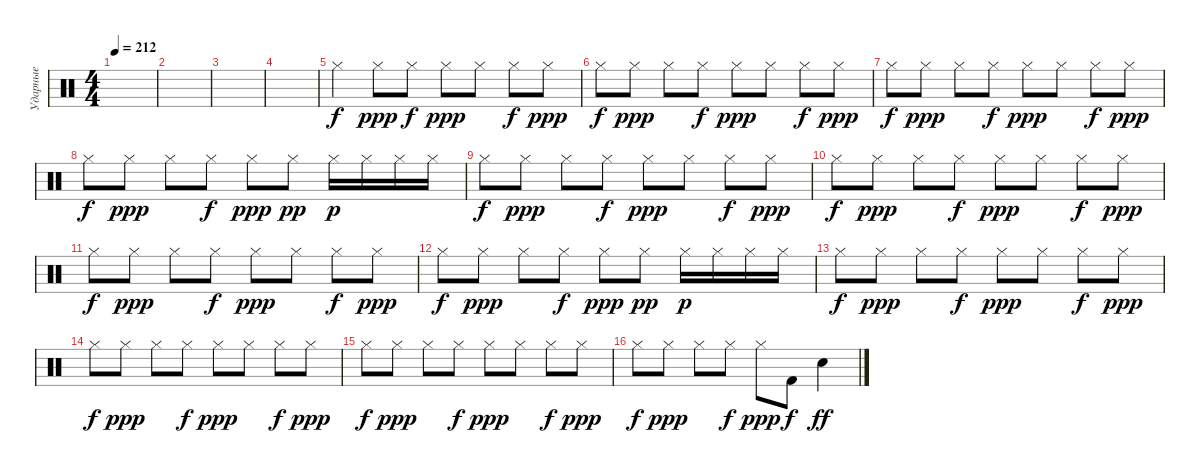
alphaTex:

\track ("Ударные" "Ударные") {instrument percussion}
\staff {score}
\articulation defaults
\ts (4 4)
\tempo 212
\clef neutral
\ks c
|
|
|
|
"Hi-Hat (closed)".4 "Hi-Hat (closed)".8{dy ppp} "Hi-Hat (closed)".8{dy f} "Hi-Hat (closed)".8{dy ppp} "Hi-Hat (closed)".8 "Hi-Hat (closed)".8{dy f} "Hi-Hat (closed)".8{dy ppp} |
"Hi-Hat (closed)".8{dy f} "Hi-Hat (closed)".8{dy ppp} "Hi-Hat (closed)".8 "Hi-Hat (closed)".8{dy f} "Hi-Hat (closed)".8{dy ppp} "Hi-Hat (closed)".8 "Hi-Hat (closed)".8{dy f} "Hi-Hat (closed)".8{dy ppp} |
"Hi-Hat (closed)".8{dy f} "Hi-Hat (closed)".8{dy ppp} "Hi-Hat (closed)".8 "Hi-Hat (closed)".8{dy f} "Hi-Hat (closed)".8{dy ppp} "Hi-Hat (closed)".8 "Hi-Hat (closed)".8{dy f} "Hi-Hat (closed)".8{dy ppp} |
"Hi-Hat (closed)".8{dy f} "Hi-Hat (closed)".8{dy ppp} "Hi-Hat (closed)".8 "Hi-Hat (closed)".8{dy f} "Hi-Hat (closed)".8{dy ppp} "Hi-Hat (closed)".8{dy pp} "Hi-Hat (closed)".16{dy p} "Hi-Hat (closed)".16 "Hi-Hat (closed)".16 "Hi-Hat (closed)".16 |
"Hi-Hat (closed)".8{dy f} "Hi-Hat (closed)".8{dy ppp} "Hi-Hat (closed)".8 "Hi-Hat (closed)".8{dy f} "Hi-Hat (closed)".8{dy ppp} "Hi-Hat (closed)".8 "Hi-Hat (closed)".8{dy f} "Hi-Hat (closed)".8{dy ppp} |
"Hi-Hat (closed)".8{dy f} "Hi-Hat (closed)".8{dy ppp} "Hi-Hat (closed)".8 "Hi-Hat (closed)".8{dy f} "Hi-Hat (closed)".8{dy ppp} "Hi-Hat (closed)".8 "Hi-Hat (closed)".8{dy f} "Hi-Hat (closed)".8{dy ppp} |
"Hi-Hat (closed)".8{dy f} "Hi-Hat (closed)".8{dy ppp} "Hi-Hat (closed)".8 "Hi-Hat (closed)".8{dy f} "Hi-Hat (closed)".8{dy ppp} "Hi-Hat (closed)".8 "Hi-Hat (closed)".8{dy f} "Hi-Hat (closed)".8{dy ppp} |
"Hi-Hat (closed)".8{dy f} "Hi-Hat (closed)".8{dy ppp} "Hi-Hat (closed)".8 "Hi-Hat (closed)".8{dy f} "Hi-Hat (closed)".8{dy ppp} "Hi-Hat (closed)".8{dy pp} "Hi-Hat (closed)".16{dy p} "Hi-Hat (closed)".16 "Hi-Hat (closed)".16 "Hi-Hat (closed)".16 |
"Hi-Hat (closed)".8{dy f} "Hi-Hat (closed)".8{dy ppp} "Hi-Hat (closed)".8 "Hi-Hat (closed)".8{dy f} "Hi-Hat (closed)".8{dy ppp} "Hi-Hat (closed)".8 "Hi-Hat (closed)".8{dy f} "Hi-Hat (closed)".8{dy ppp} |
"Hi-Hat (closed)".8{dy f} "Hi-Hat (closed)".8{dy ppp} "Hi-Hat (closed)".8 "Hi-Hat (closed)".8{dy f} "Hi-Hat (closed)".8{dy ppp} "Hi-Hat (closed)".8 "Hi-Hat (closed)".8{dy f} "Hi-Hat (closed)".8{dy ppp} |
"Hi-Hat (closed)".8{dy f} "Hi-Hat (closed)".8{dy ppp} "Hi-Hat (closed)".8 "Hi-Hat (closed)".8{dy f} "Hi-Hat (closed)".8{dy ppp} "Hi-Hat (closed)".8 "Hi-Hat (closed)".8{dy f} "Hi-Hat (closed)".8{dy ppp} |
"Hi-Hat (closed)".8{dy f} "Hi-Hat (closed)".8{dy ppp} "Hi-Hat (closed)".8 "Hi-Hat (closed)".8{dy f} "Hi-Hat (closed)".8{dy ppp} "Kick (hit) 2".8{dy f} "Electric Snare (hit)".4{dy ff}
